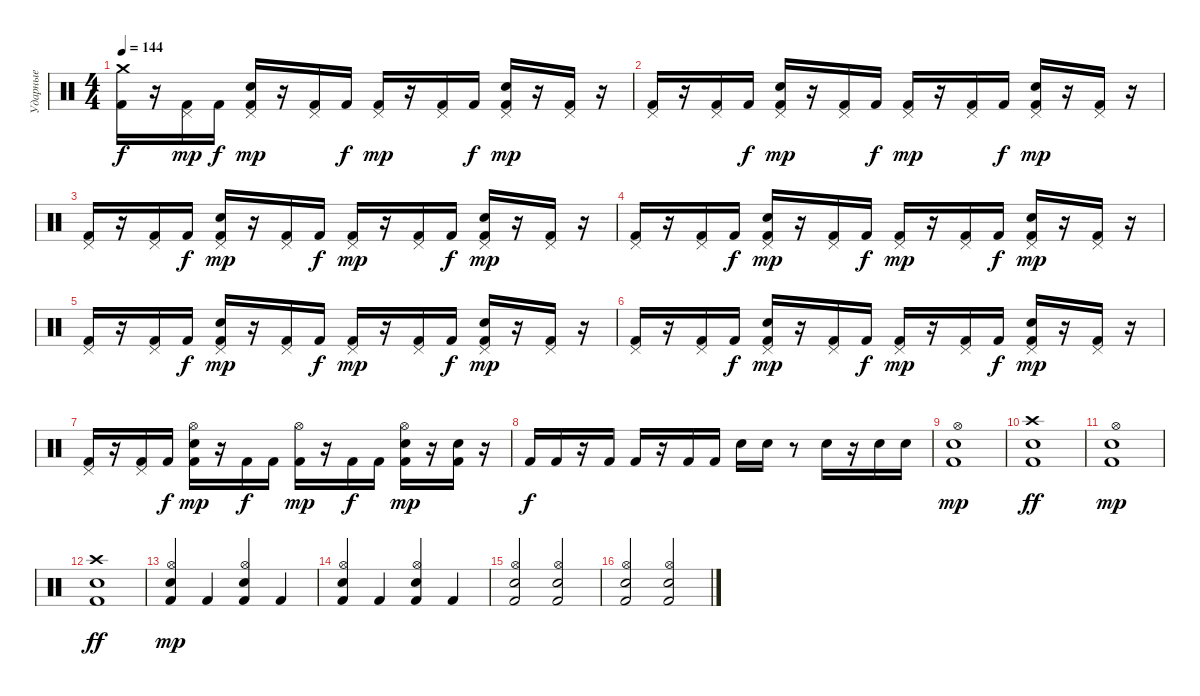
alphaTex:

\track ("Ударные" "Ударные") {instrument percussion}
\staff {score}
\articulation defaults
\ts (4 4)
\tempo 144
\clef neutral
\ks c
("Crash medium (hit)" "Kick (hit) 2").16{dy f} r.16 ("Pedal Hi-Hat (hit)" "Kick (hit) 2").16{dy mp} "Kick (hit) 2".16{dy f} ("Pedal Hi-Hat (hit)" "Electric Snare (hit)" "Kick (hit) 2").16{dy mp} r.16 ("Pedal Hi-Hat (hit)" "Kick (hit) 2").16 "Kick (hit) 2".16{dy f} ("Pedal Hi-Hat (hit)" "Kick (hit) 2").16{dy mp} r.16 ("Pedal Hi-Hat (hit)" "Kick (hit) 2").16 "Kick (hit) 2".16{dy f} ("Pedal Hi-Hat (hit)" "Electric Snare (hit)" "Kick (hit) 2").16{dy mp} r.16 ("Pedal Hi-Hat (hit)" "Kick (hit) 2").16 r.16 |
("Pedal Hi-Hat (hit)" "Kick (hit) 2").16 r.16 ("Pedal Hi-Hat (hit)" "Kick (hit) 2").16 "Kick (hit) 2".16{dy f} ("Pedal Hi-Hat (hit)" "Electric Snare (hit)" "Kick (hit) 2").16{dy mp} r.16 ("Pedal Hi-Hat (hit)" "Kick (hit) 2").16 "Kick (hit) 2".16{dy f} ("Pedal Hi-Hat (hit)" "Kick (hit) 2").16{dy mp} r.16 ("Pedal Hi-Hat (hit)" "Kick (hit) 2").16 "Kick (hit) 2".16{dy f} ("Pedal Hi-Hat (hit)" "Electric Snare (hit)" "Kick (hit) 2").16{dy mp} r.16 ("Pedal Hi-Hat (hit)" "Kick (hit) 2").16 r.16 |
("Pedal Hi-Hat (hit)" "Kick (hit) 2").16 r.16 ("Pedal Hi-Hat (hit)" "Kick (hit) 2").16 "Kick (hit) 2".16{dy f} ("Pedal Hi-Hat (hit)" "Electric Snare (hit)" "Kick (hit) 2").16{dy mp} r.16 ("Pedal Hi-Hat (hit)" "Kick (hit) 2").16 "Kick (hit) 2".16{dy f} ("Pedal Hi-Hat (hit)" "Kick (hit) 2").16{dy mp} r.16 ("Pedal Hi-Hat (hit)" "Kick (hit) 2").16 "Kick (hit) 2".16{dy f} ("Pedal Hi-Hat (hit)" "Electric Snare (hit)" "Kick (hit) 2").16{dy mp} r.16 ("Pedal Hi-Hat (hit)" "Kick (hit) 2").16 r.16 |
("Pedal Hi-Hat (hit)" "Kick (hit) 2").16 r.16 ("Pedal Hi-Hat (hit)" "Kick (hit) 2").16 "Kick (hit) 2".16{dy f} ("Pedal Hi-Hat (hit)" "Electric Snare (hit)" "Kick (hit) 2").16{dy mp} r.16 ("Pedal Hi-Hat (hit)" "Kick (hit) 2").16 "Kick (hit) 2".16{dy f} ("Pedal Hi-Hat (hit)" "Kick (hit) 2").16{dy mp} r.16 ("Pedal Hi-Hat (hit)" "Kick (hit) 2").16 "Kick (hit) 2".16{dy f} ("Pedal Hi-Hat (hit)" "Electric Snare (hit)" "Kick (hit) 2").16{dy mp} r.16 ("Pedal Hi-Hat (hit)" "Kick (hit) 2").16 r.16 |
("Pedal Hi-Hat (hit)" "Kick (hit) 2").16 r.16 ("Pedal Hi-Hat (hit)" "Kick (hit) 2").16 "Kick (hit) 2".16{dy f} ("Pedal Hi-Hat (hit)" "Electric Snare (hit)" "Kick (hit) 2").16{dy mp} r.16 ("Pedal Hi-Hat (hit)" "Kick (hit) 2").16 "Kick (hit) 2".16{dy f} ("Pedal Hi-Hat (hit)" "Kick (hit) 2").16{dy mp} r.16 ("Pedal Hi-Hat (hit)" "Kick (hit) 2").16 "Kick (hit) 2".16{dy f} ("Pedal Hi-Hat (hit)" "Electric Snare (hit)" "Kick (hit) 2").16{dy mp} r.16 ("Pedal Hi-Hat (hit)" "Kick (hit) 2").16 r.16 |
("Pedal Hi-Hat (hit)" "Kick (hit) 2").16 r.16 ("Pedal Hi-Hat (hit)" "Kick (hit) 2").16 "Kick (hit) 2".16{dy f} ("Pedal Hi-Hat (hit)" "Electric Snare (hit)" "Kick (hit) 2").16{dy mp} r.16 ("Pedal Hi-Hat (hit)" "Kick (hit) 2").16 "Kick (hit) 2".16{dy f} ("Pedal Hi-Hat (hit)" "Kick (hit) 2").16{dy mp} r.16 ("Pedal Hi-Hat (hit)" "Kick (hit) 2").16 "Kick (hit) 2".16{dy f} ("Pedal Hi-Hat (hit)" "Electric Snare (hit)" "Kick (hit) 2").16{dy mp} r.16 ("Pedal Hi-Hat (hit)" "Kick (hit) 2").16 r.16 |
("Pedal Hi-Hat (hit)" "Kick (hit) 2").16 r.16 ("Pedal Hi-Hat (hit)" "Kick (hit) 2").16 "Kick (hit) 2".16{dy f} ("Hi-Hat (open)" "Electric Snare (hit)" "Kick (hit) 2").16{dy mp} r.16 "Kick (hit) 2".16{dy f} "Kick (hit) 2".16 ("Hi-Hat (open)" "Kick (hit) 2").16{dy mp} r.16 "Kick (hit) 2".16{dy f} "Kick (hit) 2".16 ("Hi-Hat (open)" "Electric Snare (hit)" "Kick (hit) 2").16{dy mp} r.16 ("Electric Snare (hit)" "Kick (hit) 2").16 r.16 |
"Kick (hit) 2".16{dy f} "Kick (hit) 2".16 r.16 "Kick (hit) 2".16 "Kick (hit) 2".16 r.16 "Kick (hit) 2".16 "Kick (hit) 2".16 "Electric Snare (hit)".16 "Electric Snare (hit)".16 r.8 "Electric Snare (hit)".16 r.16 "Electric Snare (hit)".16 "Electric Snare (hit)".16 |
("Hi-Hat (open)" "Snare (hit) 2" "Kick (hit) 2").1{dy mp} |
("Crash high (hit)" "Snare (hit) 2" "Kick (hit) 2").1{dy ff} |
("Hi-Hat (open)" "Snare (hit) 2" "Kick (hit) 2").1{dy mp} |
("Crash high (hit)" "Snare (hit) 2" "Kick (hit) 2").1{dy ff} |
("Hi-Hat (open)" "Snare (hit) 2" "Kick (hit) 2").4{dy mp} "Kick (hit) 2".4 ("Hi-Hat (open)" "Snare (hit) 2" "Kick (hit) 2").4 "Kick (hit) 2".4 |
("Hi-Hat (open)" "Snare (hit) 2" "Kick (hit) 2").4 "Kick (hit) 2".4 ("Hi-Hat (open)" "Snare (hit) 2" "Kick (hit) 2").4 "Kick (hit) 2".4 |
("Hi-Hat (open)" "Snare (hit) 2" "Kick (hit) 2").2 ("Hi-Hat (open)" "Snare (hit) 2" "Kick (hit) 2").2 |
("Hi-Hat (open)" "Snare (hit) 2" "Kick (hit) 2").2 ("Hi-Hat (open)" "Snare (hit) 2" "Kick (hit) 2").2
